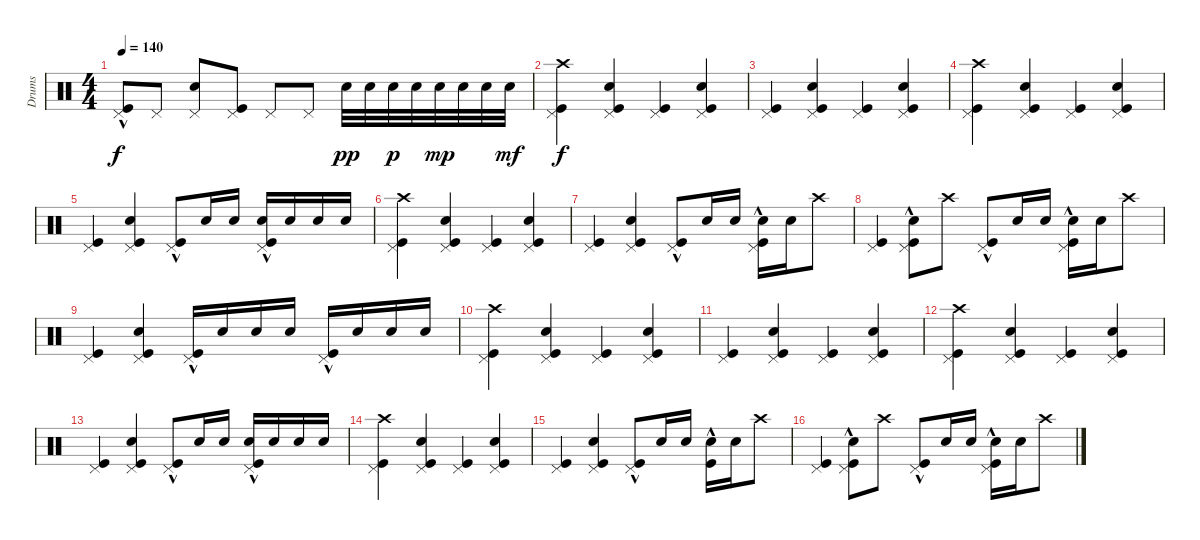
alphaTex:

\track ("Drums" "Drums") {instrument percussion}
\staff {score}
\articulation defaults
\ts (4 4)
\tempo 140
\clef neutral
\ks c
("Kick (hit)"{hac} "Pedal Hi-Hat (hit)").8{dy f} "Pedal Hi-Hat (hit)".8 ("Pedal Hi-Hat (hit)" "Snare (hit) 2").8 ("Kick (hit)" "Pedal Hi-Hat (hit)").8 "Pedal Hi-Hat (hit)".8 "Pedal Hi-Hat (hit)".8 "Snare (hit) 2".32{dy pp} "Snare (hit) 2".32 "Snare (hit) 2".32{dy p} "Snare (hit) 2".32 "Snare (hit) 2".32{dy mp} "Snare (hit) 2".32 "Snare (hit) 2".32 "Snare (hit) 2".32{dy mf} |
("Kick (hit)" "Pedal Hi-Hat (hit)" "Crash high (hit)").4{dy f} ("Kick (hit)" "Pedal Hi-Hat (hit)" "Snare (hit) 2").4 ("Kick (hit)" "Pedal Hi-Hat (hit)").4 ("Kick (hit)" "Pedal Hi-Hat (hit)" "Snare (hit) 2").4 |
("Kick (hit)" "Pedal Hi-Hat (hit)").4 ("Kick (hit)" "Pedal Hi-Hat (hit)" "Snare (hit) 2").4 ("Kick (hit)" "Pedal Hi-Hat (hit)").4 ("Kick (hit)" "Pedal Hi-Hat (hit)" "Snare (hit) 2").4 |
("Kick (hit)" "Pedal Hi-Hat (hit)" "Crash high (hit)").4 ("Kick (hit)" "Pedal Hi-Hat (hit)" "Snare (hit) 2").4 ("Kick (hit)" "Pedal Hi-Hat (hit)").4 ("Kick (hit)" "Pedal Hi-Hat (hit)" "Snare (hit) 2").4 |
("Kick (hit)" "Pedal Hi-Hat (hit)").4 ("Kick (hit)" "Pedal Hi-Hat (hit)" "Snare (hit) 2").4 ("Kick (hit)"{hac} "Pedal Hi-Hat (hit)").8 "Snare (hit) 2".16 "Snare (hit) 2".16 ("Kick (hit)"{hac} "Snare (hit) 2" "Pedal Hi-Hat (hit)").16 "Snare (hit) 2".16 "Snare (hit) 2".16 "Snare (hit) 2".16 |
("Kick (hit)" "Pedal Hi-Hat (hit)" "Crash high (hit)").4 ("Kick (hit)" "Pedal Hi-Hat (hit)" "Snare (hit) 2").4 ("Kick (hit)" "Pedal Hi-Hat (hit)").4 ("Kick (hit)" "Pedal Hi-Hat (hit)" "Snare (hit) 2").4 |
("Kick (hit)" "Pedal Hi-Hat (hit)").4 ("Kick (hit)" "Pedal Hi-Hat (hit)" "Snare (hit) 2").4 ("Pedal Hi-Hat (hit)" "Kick (hit)"{hac}).8 "Snare (hit) 2".16 "Snare (hit) 2".16 ("Snare (hit) 2" "Pedal Hi-Hat (hit)" "Kick (hit)"{hac}).16 "Snare (hit) 2".16 "Crash high (hit)".8 |
("Kick (hit)" "Pedal Hi-Hat (hit)").4 ("Kick (hit)"{hac} "Snare (hit) 2" "Pedal Hi-Hat (hit)").8 "Crash high (hit)".8 ("Kick (hit)"{hac} "Pedal Hi-Hat (hit)").8 "Snare (hit) 2".16 "Snare (hit) 2".16 ("Kick (hit)"{hac} "Snare (hit) 2" "Pedal Hi-Hat (hit)").16 "Snare (hit) 2".16 "Crash high (hit)".8 |
("Kick (hit)" "Pedal Hi-Hat (hit)").4 ("Kick (hit)" "Pedal Hi-Hat (hit)" "Snare (hit) 2").4 ("Kick (hit)"{hac} "Pedal Hi-Hat (hit)").16 "Snare (hit) 2".16 "Snare (hit) 2".16 "Snare (hit) 2".16 ("Kick (hit)"{hac} "Pedal Hi-Hat (hit)").16 "Snare (hit) 2".16 "Snare (hit) 2".16 "Snare (hit) 2".16 |
("Kick (hit)" "Pedal Hi-Hat (hit)" "Crash high (hit)").4 ("Kick (hit)" "Pedal Hi-Hat (hit)" "Snare (hit) 2").4 ("Kick (hit)" "Pedal Hi-Hat (hit)").4 ("Kick (hit)" "Pedal Hi-Hat (hit)" "Snare (hit) 2").4 |
("Kick (hit)" "Pedal Hi-Hat (hit)").4 ("Kick (hit)" "Pedal Hi-Hat (hit)" "Snare (hit) 2").4 ("Kick (hit)" "Pedal Hi-Hat (hit)").4 ("Kick (hit)" "Pedal Hi-Hat (hit)" "Snare (hit) 2").4 |
("Kick (hit)" "Pedal Hi-Hat (hit)" "Crash high (hit)").4 ("Kick (hit)" "Pedal Hi-Hat (hit)" "Snare (hit) 2").4 ("Kick (hit)" "Pedal Hi-Hat (hit)").4 ("Kick (hit)" "Pedal Hi-Hat (hit)" "Snare (hit) 2").4 |
("Kick (hit)" "Pedal Hi-Hat (hit)").4 ("Kick (hit)" "Snare (hit) 2" "Pedal Hi-Hat (hit)").4 ("Kick (hit)"{hac} "Pedal Hi-Hat (hit)").8 "Snare (hit) 2".16 "Snare (hit) 2".16 ("Kick (hit)"{hac} "Snare (hit) 2" "Pedal Hi-Hat (hit)").16 "Snare (hit) 2".16 "Snare (hit) 2".16 "Snare (hit) 2".16 |
("Kick (hit)" "Pedal Hi-Hat (hit)" "Crash high (hit)").4 ("Kick (hit)" "Pedal Hi-Hat (hit)" "Snare (hit) 2").4 ("Kick (hit)" "Pedal Hi-Hat (hit)").4 ("Kick (hit)" "Pedal Hi-Hat (hit)" "Snare (hit) 2").4 |
("Kick (hit)" "Pedal Hi-Hat (hit)").4 ("Kick (hit)" "Snare (hit) 2" "Pedal Hi-Hat (hit)").4 ("Kick (hit)"{hac} "Pedal Hi-Hat (hit)").8 "Snare (hit) 2".16 "Snare (hit) 2".16 ("Kick (hit)"{hac} "Snare (hit) 2").16 "Snare (hit) 2".16 "Crash high (hit)".8 |
("Kick (hit)" "Pedal Hi-Hat (hit)").4 ("Kick (hit)"{hac} "Snare (hit) 2" "Pedal Hi-Hat (hit)").8 "Crash high (hit)".8 ("Kick (hit)"{hac} "Pedal Hi-Hat (hit)").8 "Snare (hit) 2".16 "Snare (hit) 2".16 ("Kick (hit)"{hac} "Snare (hit) 2" "Pedal Hi-Hat (hit)").16 "Snare (hit) 2".16 "Crash high (hit)".8
